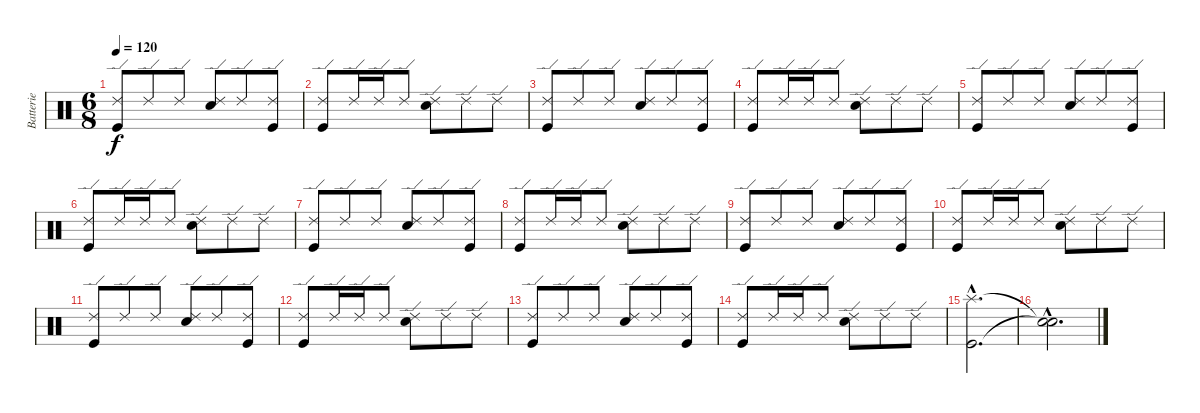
\track ("Batterie" "Batterie") {instrument percussion}
\staff {score}
\articulation defaults
\ts (6 8)
\tempo 120
\clef neutral
\ks c
("Ride (edge) 2" "Kick (hit)").8{dy f} "Ride (edge) 2".8 "Ride (edge) 2".8 ("Ride (edge) 2" "Snare (hit) 2").8 "Ride (edge) 2".8 ("Ride (edge) 2" "Kick (hit)").8 |
("Ride (edge) 2" "Kick (hit)").8 "Ride (edge) 2".16 "Ride (edge) 2".16 "Ride (edge) 2".8 ("Ride (edge) 2" "Snare (hit) 2").8 "Ride (edge) 2".8 "Ride (edge) 2".8 |
("Ride (edge) 2" "Kick (hit)").8 "Ride (edge) 2".8 "Ride (edge) 2".8 ("Ride (edge) 2" "Snare (hit) 2").8 "Ride (edge) 2".8 ("Ride (edge) 2" "Kick (hit)").8 |
("Ride (edge) 2" "Kick (hit)").8 "Ride (edge) 2".16 "Ride (edge) 2".16 "Ride (edge) 2".8 ("Ride (edge) 2" "Snare (hit) 2").8 "Ride (edge) 2".8 "Ride (edge) 2".8 |
("Ride (edge) 2" "Kick (hit)").8 "Ride (edge) 2".8 "Ride (edge) 2".8 ("Ride (edge) 2" "Snare (hit) 2").8 "Ride (edge) 2".8 ("Ride (edge) 2" "Kick (hit)").8 |
("Ride (edge) 2" "Kick (hit)").8 "Ride (edge) 2".16 "Ride (edge) 2".16 "Ride (edge) 2".8 ("Ride (edge) 2" "Snare (hit) 2").8 "Ride (edge) 2".8 "Ride (edge) 2".8 |
("Ride (edge) 2" "Kick (hit)").8 "Ride (edge) 2".8 "Ride (edge) 2".8 ("Ride (edge) 2" "Snare (hit) 2").8 "Ride (edge) 2".8 ("Ride (edge) 2" "Kick (hit)").8 |
("Ride (edge) 2" "Kick (hit)").8 "Ride (edge) 2".16 "Ride (edge) 2".16 "Ride (edge) 2".8 ("Ride (edge) 2" "Snare (hit) 2").8 "Ride (edge) 2".8 "Ride (edge) 2".8 |
("Ride (edge) 2" "Kick (hit)").8 "Ride (edge) 2".8 "Ride (edge) 2".8 ("Ride (edge) 2" "Snare (hit) 2").8 "Ride (edge) 2".8 ("Ride (edge) 2" "Kick (hit)").8 |
("Ride (edge) 2" "Kick (hit)").8 "Ride (edge) 2".16 "Ride (edge) 2".16 "Ride (edge) 2".8 ("Ride (edge) 2" "Snare (hit) 2").8 "Ride (edge) 2".8 "Ride (edge) 2".8 |
("Ride (edge) 2" "Kick (hit)").8 "Ride (edge) 2".8 "Ride (edge) 2".8 ("Ride (edge) 2" "Snare (hit) 2").8 "Ride (edge) 2".8 ("Ride (edge) 2" "Kick (hit)").8 |
("Ride (edge) 2" "Kick (hit)").8 "Ride (edge) 2".16 "Ride (edge) 2".16 "Ride (edge) 2".8 ("Ride (edge) 2" "Snare (hit) 2").8 "Ride (edge) 2".8 "Ride (edge) 2".8 |
("Ride (edge) 2" "Kick (hit)").8 "Ride (edge) 2".8 "Ride (edge) 2".8 ("Ride (edge) 2" "Snare (hit) 2").8 "Ride (edge) 2".8 ("Ride (edge) 2" "Kick (hit)").8 |
("Ride (edge) 2" "Kick (hit)").8 "Ride (edge) 2".16 "Ride (edge) 2".16 "Ride (edge) 2".8 ("Ride (edge) 2" "Snare (hit) 2").8 "Ride (edge) 2".8 "Ride (edge) 2".8 |
("Splash (hit)"{hac} "Kick (hit)"{hac}).2{d} |
("Snare (hit)"{hac t} "Snare (hit)"{hac t}).2{d}
